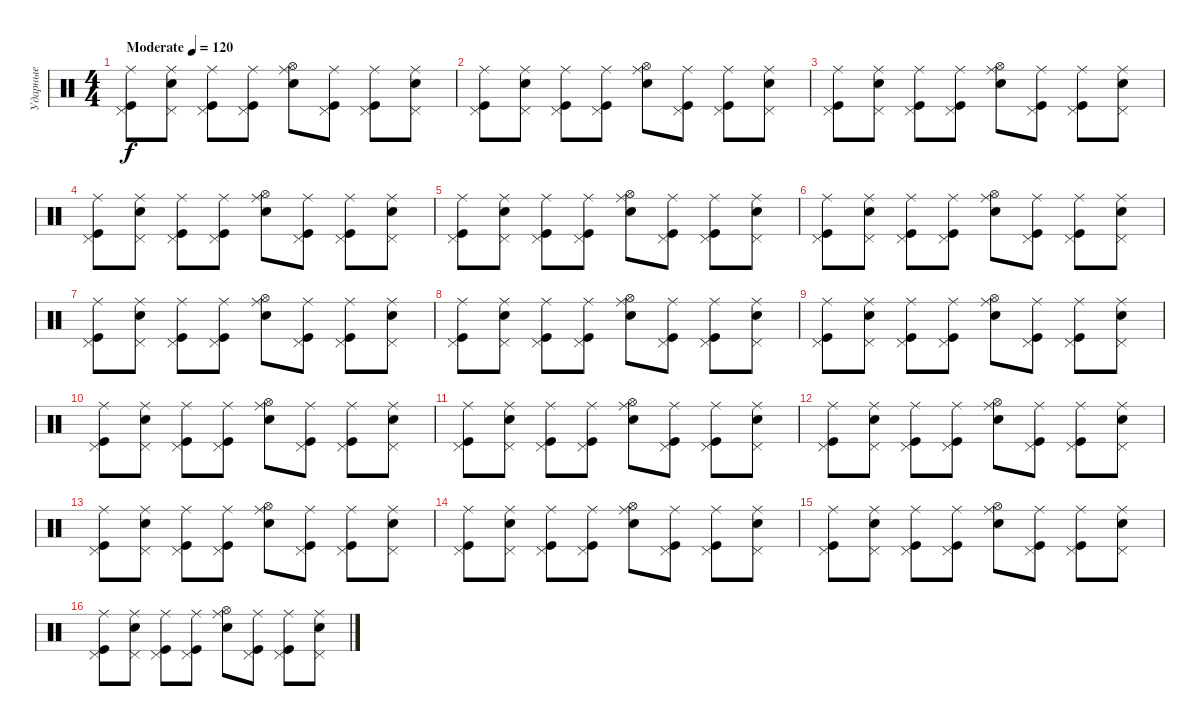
\track ("Ударные" "Ударные") {solo instrument percussion}
\staff {score}
\articulation defaults
\ts (4 4)
\tempo (120 "Moderate")
\clef neutral
\ks c
("Ride (middle)" "Pedal Hi-Hat (hit)" "Kick (hit)").8{dy f} ("Ride (middle)" "Pedal Hi-Hat (hit)" "Electric Snare (hit)").8 ("Ride (middle)" "Pedal Hi-Hat (hit)" "Kick (hit)").8 ("Ride (middle)" "Pedal Hi-Hat (hit)" "Kick (hit)").8 ("Ride (middle)" "Hi-Hat (open)" "Electric Snare (hit)").8 ("Ride (middle)" "Pedal Hi-Hat (hit)" "Kick (hit)").8 ("Ride (middle)" "Pedal Hi-Hat (hit)" "Kick (hit)").8 ("Ride (middle)" "Pedal Hi-Hat (hit)" "Electric Snare (hit)").8 |
("Ride (middle)" "Pedal Hi-Hat (hit)" "Kick (hit)").8 ("Ride (middle)" "Pedal Hi-Hat (hit)" "Electric Snare (hit)").8 ("Ride (middle)" "Pedal Hi-Hat (hit)" "Kick (hit)").8 ("Ride (middle)" "Pedal Hi-Hat (hit)" "Kick (hit)").8 ("Ride (middle)" "Hi-Hat (open)" "Electric Snare (hit)").8 ("Ride (middle)" "Pedal Hi-Hat (hit)" "Kick (hit)").8 ("Ride (middle)" "Pedal Hi-Hat (hit)" "Kick (hit)").8 ("Ride (middle)" "Pedal Hi-Hat (hit)" "Electric Snare (hit)").8 |
("Ride (middle)" "Pedal Hi-Hat (hit)" "Kick (hit)").8 ("Ride (middle)" "Pedal Hi-Hat (hit)" "Electric Snare (hit)").8 ("Ride (middle)" "Pedal Hi-Hat (hit)" "Kick (hit)").8 ("Ride (middle)" "Pedal Hi-Hat (hit)" "Kick (hit)").8 ("Ride (middle)" "Hi-Hat (open)" "Electric Snare (hit)").8 ("Ride (middle)" "Pedal Hi-Hat (hit)" "Kick (hit)").8 ("Ride (middle)" "Pedal Hi-Hat (hit)" "Kick (hit)").8 ("Ride (middle)" "Pedal Hi-Hat (hit)" "Electric Snare (hit)").8 |
("Ride (middle)" "Pedal Hi-Hat (hit)" "Kick (hit)").8 ("Ride (middle)" "Pedal Hi-Hat (hit)" "Electric Snare (hit)").8 ("Ride (middle)" "Pedal Hi-Hat (hit)" "Kick (hit)").8 ("Ride (middle)" "Pedal Hi-Hat (hit)" "Kick (hit)").8 ("Ride (middle)" "Hi-Hat (open)" "Electric Snare (hit)").8 ("Ride (middle)" "Pedal Hi-Hat (hit)" "Kick (hit)").8 ("Ride (middle)" "Pedal Hi-Hat (hit)" "Kick (hit)").8 ("Ride (middle)" "Pedal Hi-Hat (hit)" "Electric Snare (hit)").8 |
("Ride (middle)" "Pedal Hi-Hat (hit)" "Kick (hit)").8 ("Ride (middle)" "Pedal Hi-Hat (hit)" "Electric Snare (hit)").8 ("Ride (middle)" "Pedal Hi-Hat (hit)" "Kick (hit)").8 ("Ride (middle)" "Pedal Hi-Hat (hit)" "Kick (hit)").8 ("Ride (middle)" "Hi-Hat (open)" "Electric Snare (hit)").8 ("Ride (middle)" "Pedal Hi-Hat (hit)" "Kick (hit)").8 ("Ride (middle)" "Pedal Hi-Hat (hit)" "Kick (hit)").8 ("Ride (middle)" "Pedal Hi-Hat (hit)" "Electric Snare (hit)").8 |
("Ride (middle)" "Pedal Hi-Hat (hit)" "Kick (hit)").8 ("Ride (middle)" "Pedal Hi-Hat (hit)" "Electric Snare (hit)").8 ("Ride (middle)" "Pedal Hi-Hat (hit)" "Kick (hit)").8 ("Ride (middle)" "Pedal Hi-Hat (hit)" "Kick (hit)").8 ("Ride (middle)" "Hi-Hat (open)" "Electric Snare (hit)").8 ("Ride (middle)" "Pedal Hi-Hat (hit)" "Kick (hit)").8 ("Ride (middle)" "Pedal Hi-Hat (hit)" "Kick (hit)").8 ("Ride (middle)" "Pedal Hi-Hat (hit)" "Electric Snare (hit)").8 |
("Ride (middle)" "Pedal Hi-Hat (hit)" "Kick (hit)").8 ("Ride (middle)" "Pedal Hi-Hat (hit)" "Electric Snare (hit)").8 ("Ride (middle)" "Pedal Hi-Hat (hit)" "Kick (hit)").8 ("Ride (middle)" "Pedal Hi-Hat (hit)" "Kick (hit)").8 ("Ride (middle)" "Hi-Hat (open)" "Electric Snare (hit)").8 ("Ride (middle)" "Pedal Hi-Hat (hit)" "Kick (hit)").8 ("Ride (middle)" "Pedal Hi-Hat (hit)" "Kick (hit)").8 ("Ride (middle)" "Pedal Hi-Hat (hit)" "Electric Snare (hit)").8 |
("Ride (middle)" "Pedal Hi-Hat (hit)" "Kick (hit)").8 ("Ride (middle)" "Pedal Hi-Hat (hit)" "Electric Snare (hit)").8 ("Ride (middle)" "Pedal Hi-Hat (hit)" "Kick (hit)").8 ("Ride (middle)" "Pedal Hi-Hat (hit)" "Kick (hit)").8 ("Ride (middle)" "Hi-Hat (open)" "Electric Snare (hit)").8 ("Ride (middle)" "Pedal Hi-Hat (hit)" "Kick (hit)").8 ("Ride (middle)" "Pedal Hi-Hat (hit)" "Kick (hit)").8 ("Ride (middle)" "Pedal Hi-Hat (hit)" "Electric Snare (hit)").8 |
("Ride (middle)" "Pedal Hi-Hat (hit)" "Kick (hit)").8 ("Ride (middle)" "Pedal Hi-Hat (hit)" "Electric Snare (hit)").8 ("Ride (middle)" "Pedal Hi-Hat (hit)" "Kick (hit)").8 ("Ride (middle)" "Pedal Hi-Hat (hit)" "Kick (hit)").8 ("Ride (middle)" "Hi-Hat (open)" "Electric Snare (hit)").8 ("Ride (middle)" "Pedal Hi-Hat (hit)" "Kick (hit)").8 ("Ride (middle)" "Pedal Hi-Hat (hit)" "Kick (hit)").8 ("Ride (middle)" "Pedal Hi-Hat (hit)" "Electric Snare (hit)").8 |
("Ride (middle)" "Pedal Hi-Hat (hit)" "Kick (hit)").8 ("Ride (middle)" "Pedal Hi-Hat (hit)" "Electric Snare (hit)").8 ("Ride (middle)" "Pedal Hi-Hat (hit)" "Kick (hit)").8 ("Ride (middle)" "Pedal Hi-Hat (hit)" "Kick (hit)").8 ("Ride (middle)" "Hi-Hat (open)" "Electric Snare (hit)").8 ("Ride (middle)" "Pedal Hi-Hat (hit)" "Kick (hit)").8 ("Ride (middle)" "Pedal Hi-Hat (hit)" "Kick (hit)").8 ("Ride (middle)" "Pedal Hi-Hat (hit)" "Electric Snare (hit)").8 |
("Ride (middle)" "Pedal Hi-Hat (hit)" "Kick (hit)").8 ("Ride (middle)" "Pedal Hi-Hat (hit)" "Electric Snare (hit)").8 ("Ride (middle)" "Pedal Hi-Hat (hit)" "Kick (hit)").8 ("Ride (middle)" "Pedal Hi-Hat (hit)" "Kick (hit)").8 ("Ride (middle)" "Hi-Hat (open)" "Electric Snare (hit)").8 ("Ride (middle)" "Pedal Hi-Hat (hit)" "Kick (hit)").8 ("Ride (middle)" "Pedal Hi-Hat (hit)" "Kick (hit)").8 ("Ride (middle)" "Pedal Hi-Hat (hit)" "Electric Snare (hit)").8 |
("Ride (middle)" "Pedal Hi-Hat (hit)" "Kick (hit)").8 ("Ride (middle)" "Pedal Hi-Hat (hit)" "Electric Snare (hit)").8 ("Ride (middle)" "Pedal Hi-Hat (hit)" "Kick (hit)").8 ("Ride (middle)" "Pedal Hi-Hat (hit)" "Kick (hit)").8 ("Ride (middle)" "Hi-Hat (open)" "Electric Snare (hit)").8 ("Ride (middle)" "Pedal Hi-Hat (hit)" "Kick (hit)").8 ("Ride (middle)" "Pedal Hi-Hat (hit)" "Kick (hit)").8 ("Ride (middle)" "Pedal Hi-Hat (hit)" "Electric Snare (hit)").8 |
("Ride (middle)" "Pedal Hi-Hat (hit)" "Kick (hit)").8 ("Ride (middle)" "Pedal Hi-Hat (hit)" "Electric Snare (hit)").8 ("Ride (middle)" "Pedal Hi-Hat (hit)" "Kick (hit)").8 ("Ride (middle)" "Pedal Hi-Hat (hit)" "Kick (hit)").8 ("Ride (middle)" "Hi-Hat (open)" "Electric Snare (hit)").8 ("Ride (middle)" "Pedal Hi-Hat (hit)" "Kick (hit)").8 ("Ride (middle)" "Pedal Hi-Hat (hit)" "Kick (hit)").8 ("Ride (middle)" "Pedal Hi-Hat (hit)" "Electric Snare (hit)").8 |
("Ride (middle)" "Pedal Hi-Hat (hit)" "Kick (hit)").8 ("Ride (middle)" "Pedal Hi-Hat (hit)" "Electric Snare (hit)").8 ("Ride (middle)" "Pedal Hi-Hat (hit)" "Kick (hit)").8 ("Ride (middle)" "Pedal Hi-Hat (hit)" "Kick (hit)").8 ("Ride (middle)" "Hi-Hat (open)" "Electric Snare (hit)").8 ("Ride (middle)" "Pedal Hi-Hat (hit)" "Kick (hit)").8 ("Ride (middle)" "Pedal Hi-Hat (hit)" "Kick (hit)").8 ("Ride (middle)" "Pedal Hi-Hat (hit)" "Electric Snare (hit)").8 |
("Ride (middle)" "Pedal Hi-Hat (hit)" "Kick (hit)").8 ("Ride (middle)" "Pedal Hi-Hat (hit)" "Electric Snare (hit)").8 ("Ride (middle)" "Pedal Hi-Hat (hit)" "Kick (hit)").8 ("Ride (middle)" "Pedal Hi-Hat (hit)" "Kick (hit)").8 ("Ride (middle)" "Hi-Hat (open)" "Electric Snare (hit)").8 ("Ride (middle)" "Pedal Hi-Hat (hit)" "Kick (hit)").8 ("Ride (middle)" "Pedal Hi-Hat (hit)" "Kick (hit)").8 ("Ride (middle)" "Pedal Hi-Hat (hit)" "Electric Snare (hit)").8 |
("Ride (middle)" "Pedal Hi-Hat (hit)" "Kick (hit)").8 ("Ride (middle)" "Pedal Hi-Hat (hit)" "Electric Snare (hit)").8 ("Ride (middle)" "Pedal Hi-Hat (hit)" "Kick (hit)").8 ("Ride (middle)" "Pedal Hi-Hat (hit)" "Kick (hit)").8 ("Ride (middle)" "Hi-Hat (open)" "Electric Snare (hit)").8 ("Ride (middle)" "Pedal Hi-Hat (hit)" "Kick (hit)").8 ("Ride (middle)" "Pedal Hi-Hat (hit)" "Kick (hit)").8 ("Ride (middle)" "Pedal Hi-Hat (hit)" "Electric Snare (hit)").8
